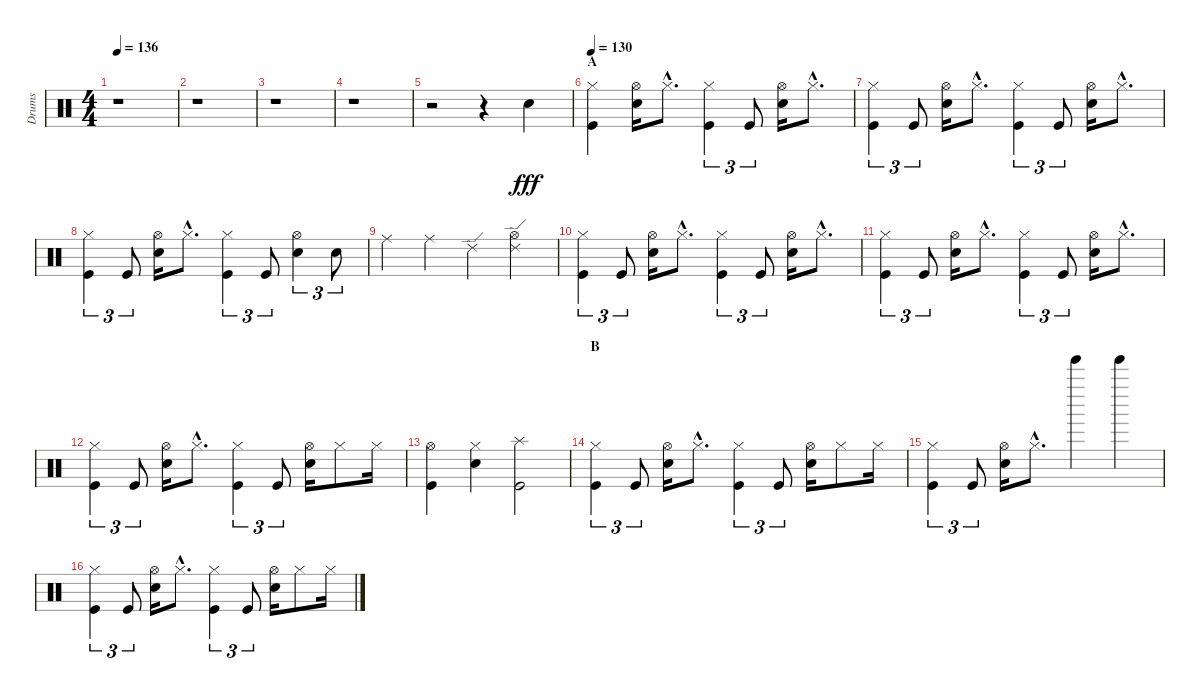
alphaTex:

\track ("Drums" "Drums") {instrument percussion}
\staff {score}
\articulation defaults
\ts (4 4)
\tempo 136
\clef neutral
\ks c
r.1{dy fff} |
r.1 |
r.1 |
r.1 |
r.2 r.4 "Snare (hit) 2".4 |
\section ("" "A")
\tempo 130
("Hi-Hat (closed)" "Kick (hit)").4 ("Hi-Hat (open)" "Snare (hit) 2").16 "Hi-Hat (closed)"{hac}.8{d} ("Hi-Hat (closed)" "Kick (hit)").4{tu (3 2)} "Kick (hit)".8{tu (3 2)} ("Hi-Hat (open)" "Snare (hit) 2").16 "Hi-Hat (closed)"{hac}.8{d} |
("Hi-Hat (closed)" "Kick (hit)").4{tu (3 2)} "Kick (hit)".8{tu (3 2)} ("Hi-Hat (open)" "Snare (hit) 2").16 "Hi-Hat (closed)"{hac}.8{d} ("Hi-Hat (closed)" "Kick (hit)").4{tu (3 2)} "Kick (hit)".8{tu (3 2)} ("Hi-Hat (open)" "Snare (hit) 2").16 "Hi-Hat (closed)"{hac}.8{d} |
("Hi-Hat (closed)" "Kick (hit)").4{tu (3 2)} "Kick (hit)".8{tu (3 2)} ("Hi-Hat (open)" "Snare (hit) 2").16 "Hi-Hat (closed)"{hac}.8{d} ("Hi-Hat (closed)" "Kick (hit)").4{tu (3 2)} "Kick (hit)".8{tu (3 2)} ("Hi-Hat (open)" "Snare (hit) 2").4{tu (3 2)} "Electric Snare (hit)".8{tu (3 2)} |
"Ride (middle)".4 "Ride (middle)".4 "Ride (edge) 2".4 ("Hi-Hat (open)" "Ride (edge) 2").4 |
("Hi-Hat (closed)" "Kick (hit)").4{tu (3 2)} "Kick (hit)".8{tu (3 2)} ("Hi-Hat (open)" "Snare (hit) 2").16 "Hi-Hat (closed)"{hac}.8{d} ("Hi-Hat (closed)" "Kick (hit)").4{tu (3 2)} "Kick (hit)".8{tu (3 2)} ("Hi-Hat (open)" "Snare (hit) 2").16 "Hi-Hat (closed)"{hac}.8{d} |
("Hi-Hat (closed)" "Kick (hit)").4{tu (3 2)} "Kick (hit)".8{tu (3 2)} ("Hi-Hat (open)" "Snare (hit) 2").16 "Hi-Hat (closed)"{hac}.8{d} ("Hi-Hat (closed)" "Kick (hit)").4{tu (3 2)} "Kick (hit)".8{tu (3 2)} ("Hi-Hat (open)" "Snare (hit) 2").16 "Hi-Hat (closed)"{hac}.8{d} |
("Hi-Hat (closed)" "Kick (hit)").4{tu (3 2)} "Kick (hit)".8{tu (3 2)} ("Hi-Hat (open)" "Snare (hit) 2").16 "Hi-Hat (closed)"{hac}.8{d} ("Hi-Hat (closed)" "Kick (hit)").4{tu (3 2)} "Kick (hit)".8{tu (3 2)} ("Hi-Hat (open)" "Snare (hit) 2").16 "Hi-Hat (closed)".8 "Hi-Hat (closed)".16 |
("Hi-Hat (open)" "Kick (hit)").4 ("Hi-Hat (closed)" "Snare (hit) 2").4 ("Splash (hit)" "Kick (hit)").2 |
\section ("" "B")
("Hi-Hat (closed)" "Kick (hit)").4{tu (3 2)} "Kick (hit)".8{tu (3 2)} ("Hi-Hat (open)" "Snare (hit) 2").16 "Hi-Hat (closed)"{hac}.8{d} ("Hi-Hat (closed)" "Kick (hit)").4{tu (3 2)} "Kick (hit)".8{tu (3 2)} ("Hi-Hat (open)" "Snare (hit) 2").16 "Hi-Hat (closed)".8 "Hi-Hat (closed)".16 |
("Hi-Hat (closed)" "Kick (hit)").4{tu (3 2)} "Kick (hit)".8{tu (3 2)} ("Hi-Hat (open)" "Snare (hit) 2").16 "Hi-Hat (closed)"{hac}.8{d} "Tinkle Bell (hit)".4 "Tinkle Bell (hit)".4 |
("Hi-Hat (closed)" "Kick (hit)").4{tu (3 2)} "Kick (hit)".8{tu (3 2)} ("Hi-Hat (open)" "Snare (hit) 2").16 "Hi-Hat (closed)"{hac}.8{d} ("Hi-Hat (closed)" "Kick (hit)").4{tu (3 2)} "Kick (hit)".8{tu (3 2)} ("Hi-Hat (open)" "Snare (hit) 2").16 "Hi-Hat (closed)".8 "Hi-Hat (closed)".16
